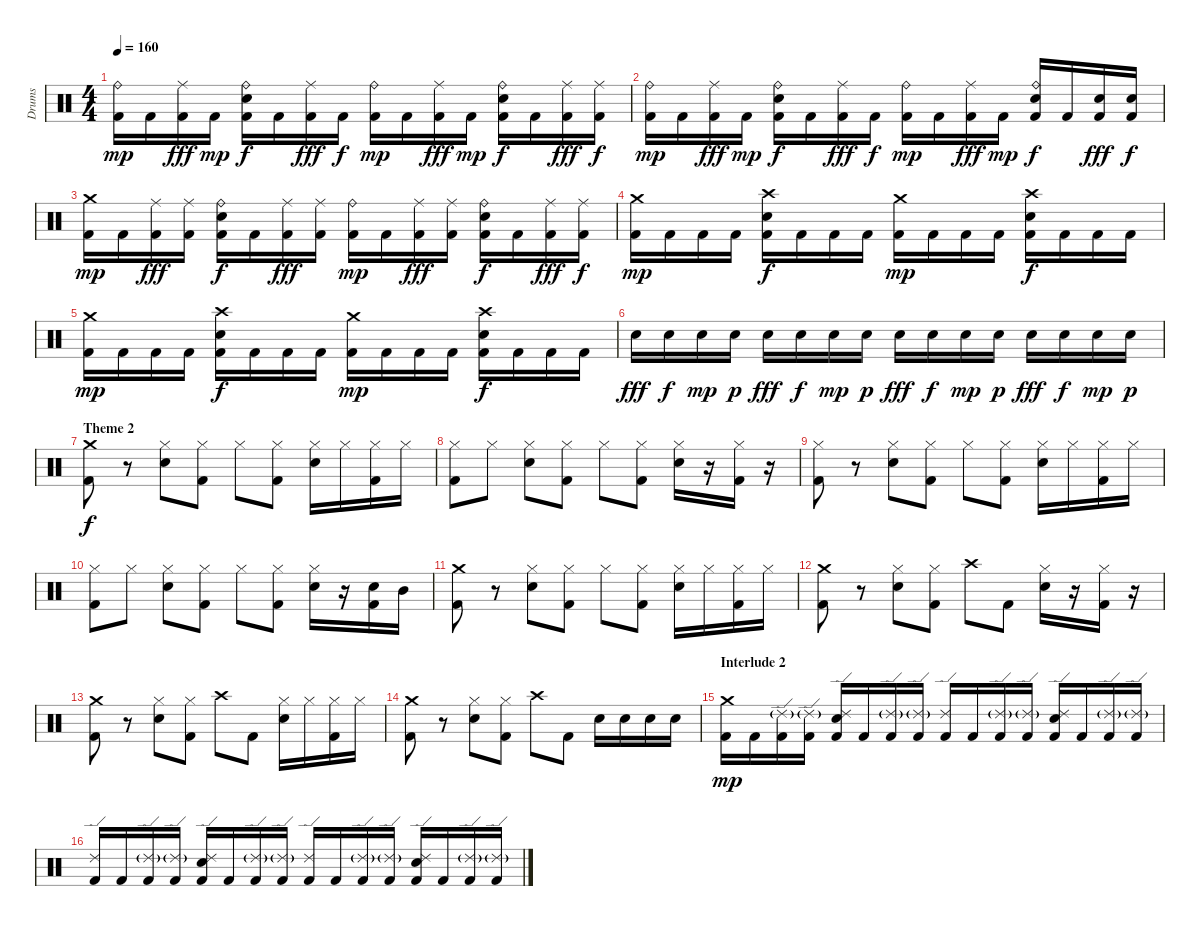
\track ("Drums" "Drums") {instrument percussion}
\staff {score}
\articulation defaults
\ts (4 4)
\tempo 160
\clef neutral
\ks c
("Kick (hit) 2" "Ride (bell)").16{dy mp} "Kick (hit) 2".16 ("Kick (hit) 2" "Ride (middle)").16{dy fff} "Kick (hit) 2".16{dy mp} ("Kick (hit) 2" "Electric Snare (hit)" "Ride (bell)").16{dy f} "Kick (hit) 2".16 ("Kick (hit) 2" "Ride (middle)").16{dy fff} "Kick (hit) 2".16{dy f} ("Kick (hit) 2" "Ride (bell)").16{dy mp} "Kick (hit) 2".16 ("Kick (hit) 2" "Ride (middle)").16{dy fff} "Kick (hit) 2".16{dy mp} ("Kick (hit) 2" "Electric Snare (hit)" "Ride (bell)").16{dy f} "Kick (hit) 2".16 ("Kick (hit) 2" "Ride (middle)").16{dy fff} ("Kick (hit) 2" "Ride (middle)").16{dy f} |
("Kick (hit) 2" "Ride (bell)").16{dy mp} "Kick (hit) 2".16 ("Kick (hit) 2" "Ride (middle)").16{dy fff} "Kick (hit) 2".16{dy mp} ("Kick (hit) 2" "Electric Snare (hit)" "Ride (bell)").16{dy f} "Kick (hit) 2".16 ("Kick (hit) 2" "Ride (middle)").16{dy fff} "Kick (hit) 2".16{dy f} ("Kick (hit) 2" "Ride (bell)").16{dy mp} "Kick (hit) 2".16 ("Kick (hit) 2" "Ride (middle)").16{dy fff} "Kick (hit) 2".16{dy mp} ("Kick (hit) 2" "Electric Snare (hit)" "Ride (bell)").16{dy f} "Kick (hit) 2".16 ("Kick (hit) 2" "Snare (hit) 2").16{dy fff} ("Kick (hit) 2" "Snare (hit) 2").16{dy f} |
("Kick (hit) 2" "Crash medium (hit)").16{dy mp} "Kick (hit) 2".16 ("Kick (hit) 2" "Ride (middle)").16{dy fff} ("Kick (hit) 2" "Ride (middle)").16 ("Kick (hit) 2" "Electric Snare (hit)" "Ride (bell)").16{dy f} "Kick (hit) 2".16 ("Kick (hit) 2" "Ride (middle)").16{dy fff} ("Kick (hit) 2" "Ride (middle)").16 ("Kick (hit) 2" "Ride (bell)").16{dy mp} "Kick (hit) 2".16 ("Kick (hit) 2" "Ride (middle)").16{dy fff} ("Kick (hit) 2" "Ride (middle)").16 ("Kick (hit) 2" "Electric Snare (hit)" "Ride (bell)").16{dy f} "Kick (hit) 2".16 ("Kick (hit) 2" "Ride (middle)").16{dy fff} ("Kick (hit) 2" "Ride (middle)").16{dy f} |
("Kick (hit) 2" "Crash medium (hit)").16{dy mp} "Kick (hit) 2".16 "Kick (hit) 2".16 "Kick (hit) 2".16 ("Kick (hit) 2" "Electric Snare (hit)" "Crash high (hit)").16{dy f} "Kick (hit) 2".16 "Kick (hit) 2".16 "Kick (hit) 2".16 ("Kick (hit) 2" "Crash medium (hit)").16{dy mp} "Kick (hit) 2".16 "Kick (hit) 2".16 "Kick (hit) 2".16 ("Kick (hit) 2" "Electric Snare (hit)" "Crash high (hit)").16{dy f} "Kick (hit) 2".16 "Kick (hit) 2".16 "Kick (hit) 2".16 |
("Kick (hit) 2" "Crash medium (hit)").16{dy mp} "Kick (hit) 2".16 "Kick (hit) 2".16 "Kick (hit) 2".16 ("Kick (hit) 2" "Electric Snare (hit)" "Crash high (hit)").16{dy f} "Kick (hit) 2".16 "Kick (hit) 2".16 "Kick (hit) 2".16 ("Kick (hit) 2" "Crash medium (hit)").16{dy mp} "Kick (hit) 2".16 "Kick (hit) 2".16 "Kick (hit) 2".16 ("Kick (hit) 2" "Electric Snare (hit)" "Crash high (hit)").16{dy f} "Kick (hit) 2".16 "Kick (hit) 2".16 "Kick (hit) 2".16 |
"Electric Snare (hit)".16{dy fff} "Electric Snare (hit)".16{dy f} "Electric Snare (hit)".16{dy mp} "Electric Snare (hit)".16{dy p} "Electric Snare (hit)".16{dy fff} "Electric Snare (hit)".16{dy f} "Electric Snare (hit)".16{dy mp} "Electric Snare (hit)".16{dy p} "Electric Snare (hit)".16{dy fff} "Electric Snare (hit)".16{dy f} "Electric Snare (hit)".16{dy mp} "Electric Snare (hit)".16{dy p} "Electric Snare (hit)".16{dy fff} "Electric Snare (hit)".16{dy f} "Electric Snare (hit)".16{dy mp} "Electric Snare (hit)".16{dy p} |
\section ("" "Theme 2")
("Kick (hit) 2" "Crash medium (hit)").8{dy f} r.8 ("Electric Snare (hit)" "Hi-Hat (closed)").8 ("Kick (hit) 2" "Hi-Hat (closed)").8 "Hi-Hat (closed)".8 ("Kick (hit) 2" "Hi-Hat (closed)").8 ("Electric Snare (hit)" "Hi-Hat (closed)").16 "Hi-Hat (closed)".16 ("Kick (hit) 2" "Hi-Hat (closed)").16 "Hi-Hat (closed)".16 |
("Kick (hit) 2" "Hi-Hat (closed)").8 "Hi-Hat (closed)".8 ("Electric Snare (hit)" "Hi-Hat (closed)").8 ("Kick (hit) 2" "Hi-Hat (closed)").8 "Hi-Hat (closed)".8 ("Kick (hit) 2" "Hi-Hat (closed)").8 ("Electric Snare (hit)" "Hi-Hat (closed)").16 r.16 ("Kick (hit) 2" "Hi-Hat (closed)").16 r.16 |
("Kick (hit) 2" "Hi-Hat (closed)").8 r.8 ("Electric Snare (hit)" "Hi-Hat (closed)").8 ("Kick (hit) 2" "Hi-Hat (closed)").8 "Hi-Hat (closed)".8 ("Kick (hit) 2" "Hi-Hat (closed)").8 ("Electric Snare (hit)" "Hi-Hat (closed)").16 "Hi-Hat (closed)".16 ("Kick (hit) 2" "Hi-Hat (closed)").16 "Hi-Hat (closed)".16 |
("Kick (hit) 2" "Hi-Hat (closed)").8 "Hi-Hat (closed)".8 ("Electric Snare (hit)" "Hi-Hat (closed)").8 ("Kick (hit) 2" "Hi-Hat (closed)").8 "Hi-Hat (closed)".8 ("Kick (hit) 2" "Hi-Hat (closed)").8 ("Electric Snare (hit)" "Hi-Hat (closed)").16 r.16 ("Kick (hit) 2" "Snare (hit) 2").16 "Mid Tom (hit)".16 |
("Kick (hit) 2" "Crash medium (hit)").8 r.8 ("Electric Snare (hit)" "Hi-Hat (closed)").8 ("Kick (hit) 2" "Hi-Hat (closed)").8 "Hi-Hat (closed)".8 ("Kick (hit) 2" "Hi-Hat (closed)").8 ("Electric Snare (hit)" "Hi-Hat (closed)").16 "Hi-Hat (closed)".16 ("Kick (hit) 2" "Hi-Hat (closed)").16 "Hi-Hat (closed)".16 |
("Kick (hit) 2" "Crash medium (hit)").8 r.8 ("Electric Snare (hit)" "Hi-Hat (closed)").8 ("Kick (hit) 2" "Hi-Hat (closed)").8 "Crash high (hit)".8 "Kick (hit) 2".8 ("Electric Snare (hit)" "Hi-Hat (closed)").16 r.16 ("Kick (hit) 2" "Hi-Hat (closed)").16 r.16 |
("Kick (hit) 2" "Crash medium (hit)").8 r.8 ("Electric Snare (hit)" "Hi-Hat (closed)").8 ("Kick (hit) 2" "Hi-Hat (closed)").8 "Crash high (hit)".8 "Kick (hit) 2".8 ("Electric Snare (hit)" "Hi-Hat (closed)").16 "Hi-Hat (closed)".16 ("Kick (hit) 2" "Hi-Hat (closed)").16 "Hi-Hat (closed)".16 |
("Kick (hit) 2" "Crash medium (hit)").8 r.8 ("Electric Snare (hit)" "Hi-Hat (closed)").8 ("Kick (hit) 2" "Hi-Hat (closed)").8 "Crash high (hit)".8 "Kick (hit) 2".8 "Electric Snare (hit)".16 "Electric Snare (hit)".16 "Snare (hit) 2".16 "Snare (hit) 2".16 |
\section ("" "Interlude 2")
("Kick (hit) 2" "Crash medium (hit)").16{dy mp} "Kick (hit) 2".16 ("Kick (hit) 2" "Ride (edge) 2"{g}).16 ("Kick (hit) 2" "Ride (edge) 2"{g}).16 ("Kick (hit) 2" "Snare (hit) 2" "Ride (edge) 2").16 "Kick (hit) 2".16 ("Kick (hit) 2" "Ride (edge) 2"{g}).16 ("Kick (hit) 2" "Ride (edge) 2"{g}).16 ("Kick (hit) 2" "Ride (edge) 2").16 "Kick (hit) 2".16 ("Kick (hit) 2" "Ride (edge) 2"{g}).16 ("Kick (hit) 2" "Ride (edge) 2"{g}).16 ("Kick (hit) 2" "Snare (hit) 2" "Ride (edge) 2").16 "Kick (hit) 2".16 ("Kick (hit) 2" "Ride (edge) 2"{g}).16 ("Kick (hit) 2" "Ride (edge) 2"{g}).16 |
("Kick (hit) 2" "Ride (edge) 2").16 "Kick (hit) 2".16 ("Kick (hit) 2" "Ride (edge) 2"{g}).16 ("Kick (hit) 2" "Ride (edge) 2"{g}).16 ("Kick (hit) 2" "Snare (hit) 2" "Ride (edge) 2").16 "Kick (hit) 2".16 ("Kick (hit) 2" "Ride (edge) 2"{g}).16 ("Kick (hit) 2" "Ride (edge) 2"{g}).16 ("Kick (hit) 2" "Ride (edge) 2").16 "Kick (hit) 2".16 ("Kick (hit) 2" "Ride (edge) 2"{g}).16 ("Kick (hit) 2" "Ride (edge) 2"{g}).16 ("Kick (hit) 2" "Snare (hit) 2" "Ride (edge) 2").16 "Kick (hit) 2".16 ("Kick (hit) 2" "Ride (edge) 2"{g}).16 ("Kick (hit) 2" "Ride (edge) 2"{g}).16
